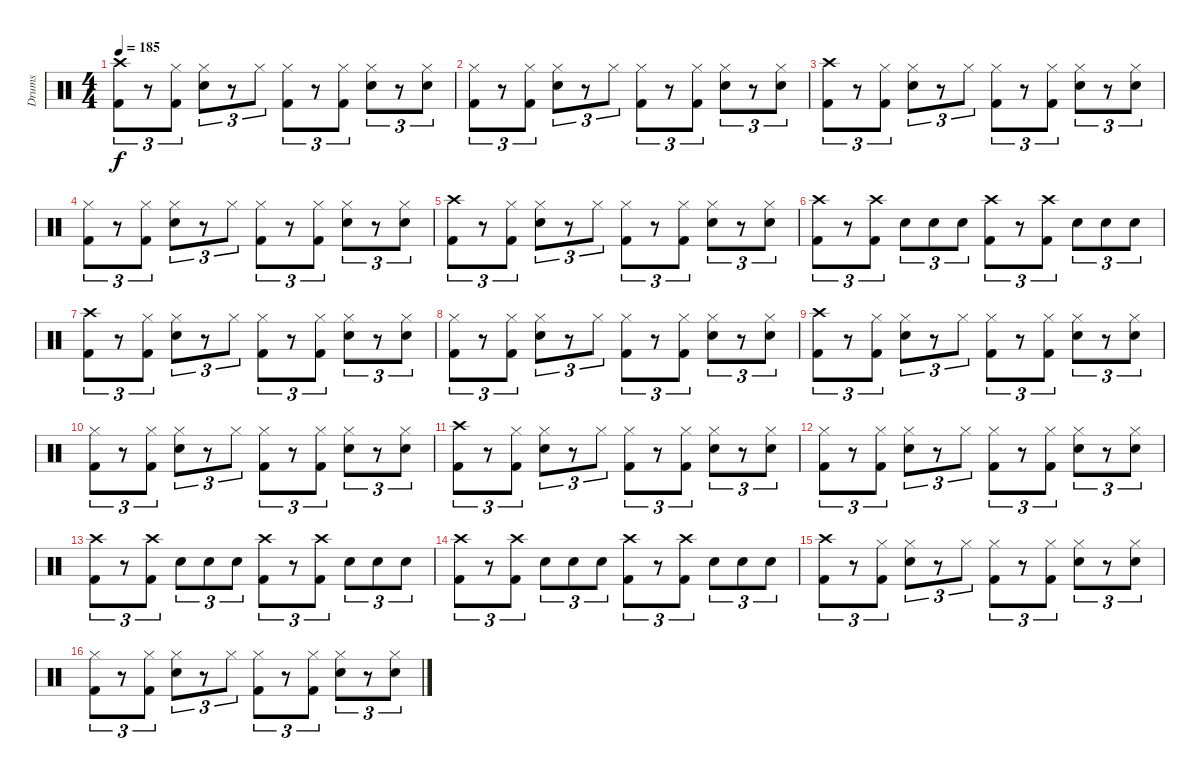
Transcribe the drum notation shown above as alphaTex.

\track ("Drums" "Drums") {instrument percussion}
\staff {score}
\articulation defaults
\ts (4 4)
\tempo 185
\clef neutral
\ks c
("Crash high (hit)" "Kick (hit) 2").8{tu (3 2) dy f} r.8{tu (3 2)} ("Hi-Hat (closed)" "Kick (hit) 2").8{tu (3 2)} ("Hi-Hat (closed)" "Electric Snare (hit)").8{tu (3 2)} r.8{tu (3 2)} "Hi-Hat (closed)".8{tu (3 2)} ("Hi-Hat (closed)" "Kick (hit) 2").8{tu (3 2)} r.8{tu (3 2)} ("Hi-Hat (closed)" "Kick (hit) 2").8{tu (3 2)} ("Hi-Hat (closed)" "Electric Snare (hit)").8{tu (3 2)} r.8{tu (3 2)} ("Hi-Hat (closed)" "Electric Snare (hit)").8{tu (3 2)} |
("Hi-Hat (closed)" "Kick (hit) 2").8{tu (3 2)} r.8{tu (3 2)} ("Hi-Hat (closed)" "Kick (hit) 2").8{tu (3 2)} ("Hi-Hat (closed)" "Electric Snare (hit)").8{tu (3 2)} r.8{tu (3 2)} "Hi-Hat (closed)".8{tu (3 2)} ("Hi-Hat (closed)" "Kick (hit) 2").8{tu (3 2)} r.8{tu (3 2)} ("Hi-Hat (closed)" "Kick (hit) 2").8{tu (3 2)} ("Hi-Hat (closed)" "Electric Snare (hit)").8{tu (3 2)} r.8{tu (3 2)} ("Hi-Hat (closed)" "Electric Snare (hit)").8{tu (3 2)} |
("Crash high (hit)" "Kick (hit) 2").8{tu (3 2)} r.8{tu (3 2)} ("Hi-Hat (closed)" "Kick (hit) 2").8{tu (3 2)} ("Hi-Hat (closed)" "Electric Snare (hit)").8{tu (3 2)} r.8{tu (3 2)} "Hi-Hat (closed)".8{tu (3 2)} ("Hi-Hat (closed)" "Kick (hit) 2").8{tu (3 2)} r.8{tu (3 2)} ("Hi-Hat (closed)" "Kick (hit) 2").8{tu (3 2)} ("Hi-Hat (closed)" "Electric Snare (hit)").8{tu (3 2)} r.8{tu (3 2)} ("Hi-Hat (closed)" "Electric Snare (hit)").8{tu (3 2)} |
("Hi-Hat (closed)" "Kick (hit) 2").8{tu (3 2)} r.8{tu (3 2)} ("Hi-Hat (closed)" "Kick (hit) 2").8{tu (3 2)} ("Hi-Hat (closed)" "Electric Snare (hit)").8{tu (3 2)} r.8{tu (3 2)} "Hi-Hat (closed)".8{tu (3 2)} ("Hi-Hat (closed)" "Kick (hit) 2").8{tu (3 2)} r.8{tu (3 2)} ("Hi-Hat (closed)" "Kick (hit) 2").8{tu (3 2)} ("Hi-Hat (closed)" "Electric Snare (hit)").8{tu (3 2)} r.8{tu (3 2)} ("Hi-Hat (closed)" "Electric Snare (hit)").8{tu (3 2)} |
("Crash high (hit)" "Kick (hit) 2").8{tu (3 2)} r.8{tu (3 2)} ("Hi-Hat (closed)" "Kick (hit) 2").8{tu (3 2)} ("Hi-Hat (closed)" "Electric Snare (hit)").8{tu (3 2)} r.8{tu (3 2)} "Hi-Hat (closed)".8{tu (3 2)} ("Hi-Hat (closed)" "Kick (hit) 2").8{tu (3 2)} r.8{tu (3 2)} ("Hi-Hat (closed)" "Kick (hit) 2").8{tu (3 2)} ("Hi-Hat (closed)" "Electric Snare (hit)").8{tu (3 2)} r.8{tu (3 2)} ("Hi-Hat (closed)" "Electric Snare (hit)").8{tu (3 2)} |
("Crash high (hit)" "Kick (hit) 2").8{tu (3 2)} r.8{tu (3 2)} ("Crash high (hit)" "Kick (hit) 2").8{tu (3 2)} "Electric Snare (hit)".8{tu (3 2)} "Electric Snare (hit)".8{tu (3 2)} "Electric Snare (hit)".8{tu (3 2)} ("Crash high (hit)" "Kick (hit) 2").8{tu (3 2)} r.8{tu (3 2)} ("Crash high (hit)" "Kick (hit) 2").8{tu (3 2)} "Electric Snare (hit)".8{tu (3 2)} "Electric Snare (hit)".8{tu (3 2)} "Electric Snare (hit)".8{tu (3 2)} |
("Crash high (hit)" "Kick (hit) 2").8{tu (3 2)} r.8{tu (3 2)} ("Hi-Hat (closed)" "Kick (hit) 2").8{tu (3 2)} ("Hi-Hat (closed)" "Electric Snare (hit)").8{tu (3 2)} r.8{tu (3 2)} "Hi-Hat (closed)".8{tu (3 2)} ("Hi-Hat (closed)" "Kick (hit) 2").8{tu (3 2)} r.8{tu (3 2)} ("Hi-Hat (closed)" "Kick (hit) 2").8{tu (3 2)} ("Hi-Hat (closed)" "Electric Snare (hit)").8{tu (3 2)} r.8{tu (3 2)} ("Hi-Hat (closed)" "Electric Snare (hit)").8{tu (3 2)} |
("Hi-Hat (closed)" "Kick (hit) 2").8{tu (3 2)} r.8{tu (3 2)} ("Hi-Hat (closed)" "Kick (hit) 2").8{tu (3 2)} ("Hi-Hat (closed)" "Electric Snare (hit)").8{tu (3 2)} r.8{tu (3 2)} "Hi-Hat (closed)".8{tu (3 2)} ("Hi-Hat (closed)" "Kick (hit) 2").8{tu (3 2)} r.8{tu (3 2)} ("Hi-Hat (closed)" "Kick (hit) 2").8{tu (3 2)} ("Hi-Hat (closed)" "Electric Snare (hit)").8{tu (3 2)} r.8{tu (3 2)} ("Hi-Hat (closed)" "Electric Snare (hit)").8{tu (3 2)} |
("Crash high (hit)" "Kick (hit) 2").8{tu (3 2)} r.8{tu (3 2)} ("Hi-Hat (closed)" "Kick (hit) 2").8{tu (3 2)} ("Hi-Hat (closed)" "Electric Snare (hit)").8{tu (3 2)} r.8{tu (3 2)} "Hi-Hat (closed)".8{tu (3 2)} ("Hi-Hat (closed)" "Kick (hit) 2").8{tu (3 2)} r.8{tu (3 2)} ("Hi-Hat (closed)" "Kick (hit) 2").8{tu (3 2)} ("Hi-Hat (closed)" "Electric Snare (hit)").8{tu (3 2)} r.8{tu (3 2)} ("Hi-Hat (closed)" "Electric Snare (hit)").8{tu (3 2)} |
("Hi-Hat (closed)" "Kick (hit) 2").8{tu (3 2)} r.8{tu (3 2)} ("Hi-Hat (closed)" "Kick (hit) 2").8{tu (3 2)} ("Hi-Hat (closed)" "Electric Snare (hit)").8{tu (3 2)} r.8{tu (3 2)} "Hi-Hat (closed)".8{tu (3 2)} ("Hi-Hat (closed)" "Kick (hit) 2").8{tu (3 2)} r.8{tu (3 2)} ("Hi-Hat (closed)" "Kick (hit) 2").8{tu (3 2)} ("Hi-Hat (closed)" "Electric Snare (hit)").8{tu (3 2)} r.8{tu (3 2)} ("Hi-Hat (closed)" "Electric Snare (hit)").8{tu (3 2)} |
("Crash high (hit)" "Kick (hit) 2").8{tu (3 2)} r.8{tu (3 2)} ("Hi-Hat (closed)" "Kick (hit) 2").8{tu (3 2)} ("Hi-Hat (closed)" "Electric Snare (hit)").8{tu (3 2)} r.8{tu (3 2)} "Hi-Hat (closed)".8{tu (3 2)} ("Hi-Hat (closed)" "Kick (hit) 2").8{tu (3 2)} r.8{tu (3 2)} ("Hi-Hat (closed)" "Kick (hit) 2").8{tu (3 2)} ("Hi-Hat (closed)" "Electric Snare (hit)").8{tu (3 2)} r.8{tu (3 2)} ("Hi-Hat (closed)" "Electric Snare (hit)").8{tu (3 2)} |
("Hi-Hat (closed)" "Kick (hit) 2").8{tu (3 2)} r.8{tu (3 2)} ("Hi-Hat (closed)" "Kick (hit) 2").8{tu (3 2)} ("Hi-Hat (closed)" "Electric Snare (hit)").8{tu (3 2)} r.8{tu (3 2)} "Hi-Hat (closed)".8{tu (3 2)} ("Hi-Hat (closed)" "Kick (hit) 2").8{tu (3 2)} r.8{tu (3 2)} ("Hi-Hat (closed)" "Kick (hit) 2").8{tu (3 2)} ("Hi-Hat (closed)" "Electric Snare (hit)").8{tu (3 2)} r.8{tu (3 2)} ("Hi-Hat (closed)" "Electric Snare (hit)").8{tu (3 2)} |
("Crash high (hit)" "Kick (hit) 2").8{tu (3 2)} r.8{tu (3 2)} ("Crash high (hit)" "Kick (hit) 2").8{tu (3 2)} "Electric Snare (hit)".8{tu (3 2)} "Electric Snare (hit)".8{tu (3 2)} "Electric Snare (hit)".8{tu (3 2)} ("Crash high (hit)" "Kick (hit) 2").8{tu (3 2)} r.8{tu (3 2)} ("Crash high (hit)" "Kick (hit) 2").8{tu (3 2)} "Electric Snare (hit)".8{tu (3 2)} "Electric Snare (hit)".8{tu (3 2)} "Electric Snare (hit)".8{tu (3 2)} |
("Crash high (hit)" "Kick (hit) 2").8{tu (3 2)} r.8{tu (3 2)} ("Crash high (hit)" "Kick (hit) 2").8{tu (3 2)} "Electric Snare (hit)".8{tu (3 2)} "Electric Snare (hit)".8{tu (3 2)} "Electric Snare (hit)".8{tu (3 2)} ("Crash high (hit)" "Kick (hit) 2").8{tu (3 2)} r.8{tu (3 2)} ("Crash high (hit)" "Kick (hit) 2").8{tu (3 2)} "Electric Snare (hit)".8{tu (3 2)} "Electric Snare (hit)".8{tu (3 2)} "Electric Snare (hit)".8{tu (3 2)} |
("Crash high (hit)" "Kick (hit) 2").8{tu (3 2)} r.8{tu (3 2)} ("Hi-Hat (closed)" "Kick (hit) 2").8{tu (3 2)} ("Hi-Hat (closed)" "Electric Snare (hit)").8{tu (3 2)} r.8{tu (3 2)} "Hi-Hat (closed)".8{tu (3 2)} ("Hi-Hat (closed)" "Kick (hit) 2").8{tu (3 2)} r.8{tu (3 2)} ("Hi-Hat (closed)" "Kick (hit) 2").8{tu (3 2)} ("Hi-Hat (closed)" "Electric Snare (hit)").8{tu (3 2)} r.8{tu (3 2)} ("Hi-Hat (closed)" "Electric Snare (hit)").8{tu (3 2)} |
("Hi-Hat (closed)" "Kick (hit) 2").8{tu (3 2)} r.8{tu (3 2)} ("Hi-Hat (closed)" "Kick (hit) 2").8{tu (3 2)} ("Hi-Hat (closed)" "Electric Snare (hit)").8{tu (3 2)} r.8{tu (3 2)} "Hi-Hat (closed)".8{tu (3 2)} ("Hi-Hat (closed)" "Kick (hit) 2").8{tu (3 2)} r.8{tu (3 2)} ("Hi-Hat (closed)" "Kick (hit) 2").8{tu (3 2)} ("Hi-Hat (closed)" "Electric Snare (hit)").8{tu (3 2)} r.8{tu (3 2)} ("Hi-Hat (closed)" "Electric Snare (hit)").8{tu (3 2)}
